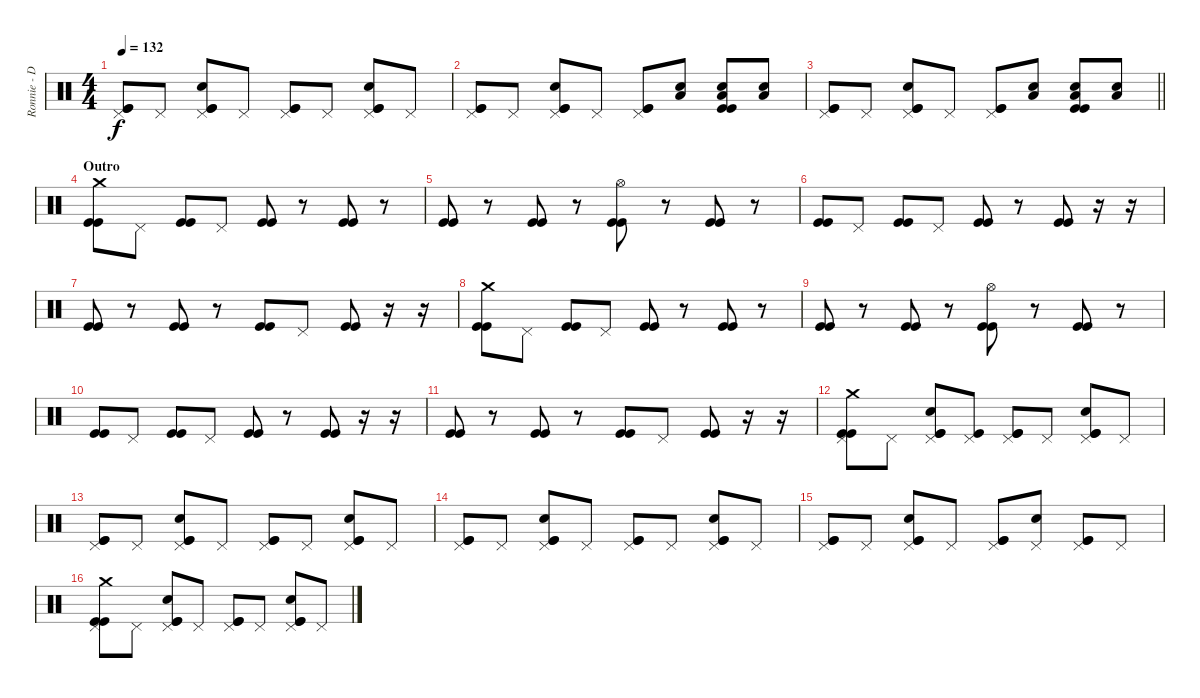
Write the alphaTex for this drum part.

\track ("Ronnie - Drums" "Ronnie - D") {instrument percussion}
\staff {score}
\articulation defaults
\ts (4 4)
\tempo 132
\clef neutral
\ks c
("Pedal Hi-Hat (hit)" "Kick (hit)" "Kick (hit)").8{dy f} "Pedal Hi-Hat (hit)".8 ("Pedal Hi-Hat (hit)" "Electric Snare (hit)" "Kick (hit)" "Kick (hit)").8 "Pedal Hi-Hat (hit)".8 ("Pedal Hi-Hat (hit)" "Kick (hit)" "Kick (hit)").8 "Pedal Hi-Hat (hit)".8 ("Pedal Hi-Hat (hit)" "Electric Snare (hit)" "Kick (hit)" "Kick (hit)").8 "Pedal Hi-Hat (hit)".8 |
("Pedal Hi-Hat (hit)" "Kick (hit)" "Kick (hit)").8 "Pedal Hi-Hat (hit)".8 ("Pedal Hi-Hat (hit)" "Electric Snare (hit)" "Kick (hit)" "Kick (hit)").8 "Pedal Hi-Hat (hit)".8 ("Pedal Hi-Hat (hit)" "Kick (hit)" "Kick (hit)").8 ("Low Floor Tom (hit)" "Electric Snare (hit)").8 ("Low Floor Tom (hit)" "Electric Snare (hit)" "Kick (hit)" "Kick (hit)").8 ("Low Floor Tom (hit)" "Electric Snare (hit)").8 |
\barLineRight lightlight
("Pedal Hi-Hat (hit)" "Kick (hit)" "Kick (hit)").8 "Pedal Hi-Hat (hit)".8 ("Pedal Hi-Hat (hit)" "Electric Snare (hit)" "Kick (hit)" "Kick (hit)").8 "Pedal Hi-Hat (hit)".8 ("Pedal Hi-Hat (hit)" "Kick (hit)" "Kick (hit)").8 ("Low Floor Tom (hit)" "Electric Snare (hit)").8 ("Low Floor Tom (hit)" "Electric Snare (hit)" "Kick (hit)" "Kick (hit)").8 ("Low Floor Tom (hit)" "Electric Snare (hit)").8 |
\section ("" "Outro")
("Crash medium (hit)" "Kick (hit)" "Kick (hit)").8 "Pedal Hi-Hat (hit)".8 ("Kick (hit)" "Kick (hit)").8 "Pedal Hi-Hat (hit)".8 ("Kick (hit)" "Kick (hit)").8 r.8 ("Kick (hit)" "Kick (hit)").8 r.8 |
("Kick (hit)" "Kick (hit)").8 r.8 ("Kick (hit)" "Kick (hit)").8 r.8 ("Hi-Hat (open)" "Kick (hit)" "Kick (hit)").8 r.8 ("Kick (hit)" "Kick (hit)").8 r.8 |
("Kick (hit)" "Kick (hit)").8 "Pedal Hi-Hat (hit)".8 ("Kick (hit)" "Kick (hit)").8 "Pedal Hi-Hat (hit)".8 ("Kick (hit)" "Kick (hit)").8 r.8 ("Kick (hit)" "Kick (hit)").8 r.16 r.16 |
("Kick (hit)" "Kick (hit)").8 r.8 ("Kick (hit)" "Kick (hit)").8 r.8 ("Kick (hit)" "Kick (hit)").8 "Pedal Hi-Hat (hit)".8 ("Kick (hit)" "Kick (hit)").8 r.16 r.16 |
("Crash medium (hit)" "Kick (hit)" "Kick (hit)").8 "Pedal Hi-Hat (hit)".8 ("Kick (hit)" "Kick (hit)").8 "Pedal Hi-Hat (hit)".8 ("Kick (hit)" "Kick (hit)").8 r.8 ("Kick (hit)" "Kick (hit)").8 r.8 |
("Kick (hit)" "Kick (hit)").8 r.8 ("Kick (hit)" "Kick (hit)").8 r.8 ("Hi-Hat (open)" "Kick (hit)" "Kick (hit)").8 r.8 ("Kick (hit)" "Kick (hit)").8 r.8 |
("Kick (hit)" "Kick (hit)").8 "Pedal Hi-Hat (hit)".8 ("Kick (hit)" "Kick (hit)").8 "Pedal Hi-Hat (hit)".8 ("Kick (hit)" "Kick (hit)").8 r.8 ("Kick (hit)" "Kick (hit)").8 r.16 r.16 |
("Kick (hit)" "Kick (hit)").8 r.8 ("Kick (hit)" "Kick (hit)").8 r.8 ("Kick (hit)" "Kick (hit)").8 "Pedal Hi-Hat (hit)".8 ("Kick (hit)" "Kick (hit)").8 r.16 r.16 |
("Pedal Hi-Hat (hit)" "Crash medium (hit)" "Kick (hit)" "Kick (hit)").8 "Pedal Hi-Hat (hit)".8 ("Pedal Hi-Hat (hit)" "Electric Snare (hit)" "Kick (hit)" "Kick (hit)").8 ("Pedal Hi-Hat (hit)" "Kick (hit)").8 ("Pedal Hi-Hat (hit)" "Kick (hit)" "Kick (hit)").8 "Pedal Hi-Hat (hit)".8 ("Pedal Hi-Hat (hit)" "Electric Snare (hit)" "Kick (hit)" "Kick (hit)").8 "Pedal Hi-Hat (hit)".8 |
("Pedal Hi-Hat (hit)" "Kick (hit)" "Kick (hit)").8 "Pedal Hi-Hat (hit)".8 ("Pedal Hi-Hat (hit)" "Electric Snare (hit)" "Kick (hit)" "Kick (hit)").8 "Pedal Hi-Hat (hit)".8 ("Pedal Hi-Hat (hit)" "Kick (hit)" "Kick (hit)").8 "Pedal Hi-Hat (hit)".8 ("Pedal Hi-Hat (hit)" "Electric Snare (hit)" "Kick (hit)" "Kick (hit)").8 "Pedal Hi-Hat (hit)".8 |
("Pedal Hi-Hat (hit)" "Kick (hit)" "Kick (hit)").8 "Pedal Hi-Hat (hit)".8 ("Pedal Hi-Hat (hit)" "Electric Snare (hit)" "Kick (hit)" "Kick (hit)").8 "Pedal Hi-Hat (hit)".8 ("Pedal Hi-Hat (hit)" "Kick (hit)" "Kick (hit)").8 "Pedal Hi-Hat (hit)".8 ("Pedal Hi-Hat (hit)" "Electric Snare (hit)" "Kick (hit)" "Kick (hit)").8 "Pedal Hi-Hat (hit)".8 |
("Pedal Hi-Hat (hit)" "Kick (hit)" "Kick (hit)").8 "Pedal Hi-Hat (hit)".8 ("Pedal Hi-Hat (hit)" "Electric Snare (hit)" "Kick (hit)" "Kick (hit)").8 "Pedal Hi-Hat (hit)".8 ("Pedal Hi-Hat (hit)" "Kick (hit)" "Kick (hit)").8 ("Pedal Hi-Hat (hit)" "Electric Snare (hit)").8 ("Pedal Hi-Hat (hit)" "Kick (hit)" "Kick (hit)").8 "Pedal Hi-Hat (hit)".8 |
("Pedal Hi-Hat (hit)" "Crash medium (hit)" "Kick (hit)" "Kick (hit)").8 "Pedal Hi-Hat (hit)".8 ("Pedal Hi-Hat (hit)" "Electric Snare (hit)" "Kick (hit)" "Kick (hit)").8 "Pedal Hi-Hat (hit)".8 ("Pedal Hi-Hat (hit)" "Kick (hit)" "Kick (hit)").8 "Pedal Hi-Hat (hit)".8 ("Pedal Hi-Hat (hit)" "Electric Snare (hit)" "Kick (hit)" "Kick (hit)").8 "Pedal Hi-Hat (hit)".8
